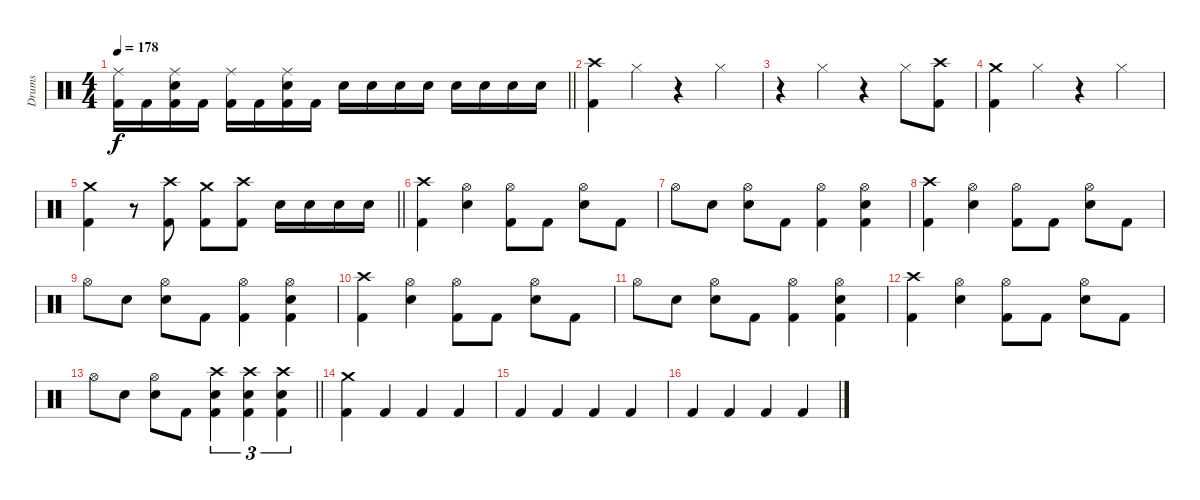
\track ("Drums" "Drums") {instrument percussion}
\staff {score}
\articulation defaults
\ts (4 4)
\tempo 178
\clef neutral
\barLineRight lightlight
\ks c
("Ride (middle)" "Kick (hit) 2").16{dy f} "Kick (hit) 2".16 ("Ride (middle)" "Snare (hit) 2" "Kick (hit) 2").16 "Kick (hit) 2".16 ("Ride (middle)" "Kick (hit) 2").16 "Kick (hit) 2".16 ("Ride (middle)" "Snare (hit) 2" "Kick (hit) 2").16 "Kick (hit) 2".16 "Snare (hit) 2".16 "Snare (hit) 2".16 "Snare (hit) 2".16 "Snare (hit) 2".16 "Snare (hit) 2".16 "Snare (hit) 2".16 "Snare (hit) 2".16 "Snare (hit) 2".16 |
("Crash high (hit)" "Kick (hit) 2").4 "Hi-Hat (closed)".4 r.4 "Hi-Hat (closed)".4 |
r.4 "Hi-Hat (closed)".4 r.4 "Hi-Hat (closed)".8 ("Crash high (hit)" "Kick (hit) 2").8 |
("Crash medium (hit)" "Kick (hit) 2").4 "Hi-Hat (closed)".4 r.4 "Hi-Hat (closed)".4 |
\barLineRight lightlight
("Crash medium (hit)" "Kick (hit) 2").4 r.8 ("Crash high (hit)" "Kick (hit) 2").8 ("Crash medium (hit)" "Kick (hit) 2").8 ("Crash high (hit)" "Kick (hit) 2").8 "Snare (hit) 2".16 "Snare (hit) 2".16 "Snare (hit) 2".16 "Snare (hit) 2".16 |
("Crash high (hit)" "Kick (hit) 2").4 ("Hi-Hat (open)" "Snare (hit) 2").4 ("Hi-Hat (open)" "Kick (hit) 2").8 "Kick (hit) 2".8 ("Hi-Hat (open)" "Snare (hit) 2").8 "Kick (hit) 2".8 |
"Hi-Hat (open)".8 "Snare (hit) 2".8 ("Hi-Hat (open)" "Snare (hit) 2").8 "Kick (hit) 2".8 ("Hi-Hat (open)" "Kick (hit) 2").4 ("Hi-Hat (open)" "Snare (hit) 2" "Kick (hit) 2").4 |
("Crash high (hit)" "Kick (hit) 2").4 ("Hi-Hat (open)" "Snare (hit) 2").4 ("Hi-Hat (open)" "Kick (hit) 2").8 "Kick (hit) 2".8 ("Hi-Hat (open)" "Snare (hit) 2").8 "Kick (hit) 2".8 |
"Hi-Hat (open)".8 "Snare (hit) 2".8 ("Hi-Hat (open)" "Snare (hit) 2").8 "Kick (hit) 2".8 ("Hi-Hat (open)" "Kick (hit) 2").4 ("Hi-Hat (open)" "Snare (hit) 2" "Kick (hit) 2").4 |
("Crash high (hit)" "Kick (hit) 2").4 ("Hi-Hat (open)" "Snare (hit) 2").4 ("Hi-Hat (open)" "Kick (hit) 2").8 "Kick (hit) 2".8 ("Hi-Hat (open)" "Snare (hit) 2").8 "Kick (hit) 2".8 |
"Hi-Hat (open)".8 "Snare (hit) 2".8 ("Hi-Hat (open)" "Snare (hit) 2").8 "Kick (hit) 2".8 ("Hi-Hat (open)" "Kick (hit) 2").4 ("Hi-Hat (open)" "Snare (hit) 2" "Kick (hit) 2").4 |
("Crash high (hit)" "Kick (hit) 2").4 ("Hi-Hat (open)" "Snare (hit) 2").4 ("Hi-Hat (open)" "Kick (hit) 2").8 "Kick (hit) 2".8 ("Hi-Hat (open)" "Snare (hit) 2").8 "Kick (hit) 2".8 |
\barLineRight lightlight "Hi-Hat (open)".8 "Snare (hit) 2".8
("Hi-Hat (open)" "Snare (hit) 2").8 "Kick (hit) 2".8 ("Crash high (hit)" "Snare (hit) 2" "Kick (hit) 2").4{tu (3 2)} ("Crash high (hit)" "Snare (hit) 2" "Kick (hit) 2").4{tu (3 2)} ("Crash high (hit)" "Snare (hit) 2" "Kick (hit) 2").4{tu (3 2)} |
("Crash medium (hit)" "Kick (hit) 2").4 "Kick (hit) 2".4 "Kick (hit) 2".4 "Kick (hit) 2".4 |
"Kick (hit) 2".4 "Kick (hit) 2".4 "Kick (hit) 2".4 "Kick (hit) 2".4 |
"Kick (hit) 2".4 "Kick (hit) 2".4 "Kick (hit) 2".4 "Kick (hit) 2".4
